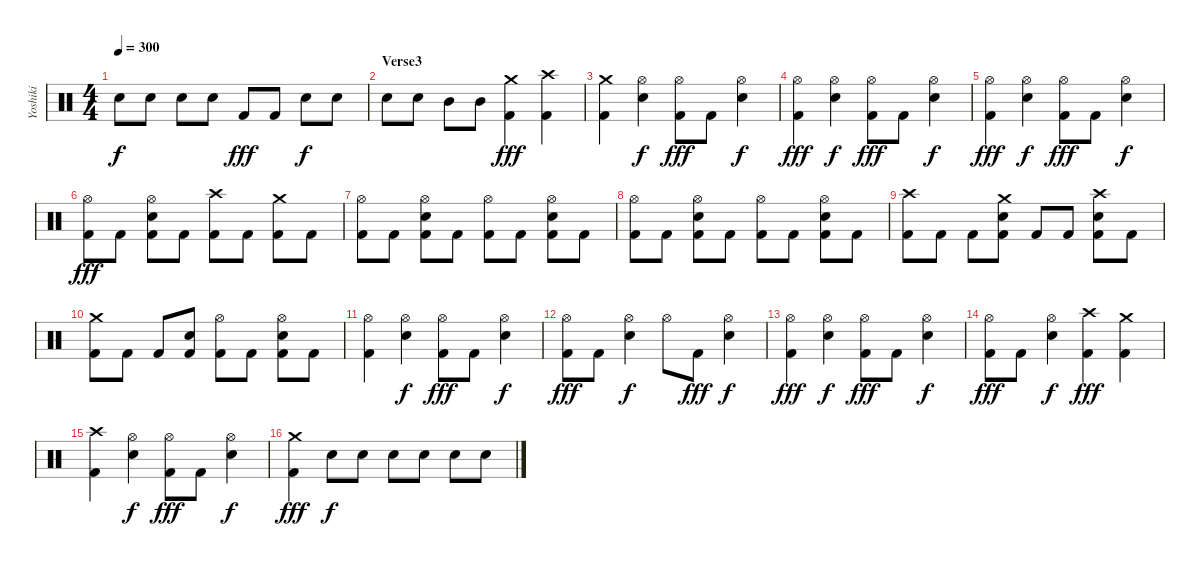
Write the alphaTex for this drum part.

\track ("Yoshiki" "Yoshiki") {instrument percussion}
\staff {score}
\articulation defaults
\ts (4 4)
\tempo 300
\clef neutral
\ks c "Snare (hit) 2".8{dy f} "Snare (hit) 2".8 "Snare (hit) 2".8 "Snare (hit) 2".8 "Kick (hit) 2".8{dy fff} "Kick (hit) 2".8 "Snare (hit) 2".8{dy f} "Snare (hit) 2".8
|
\section ("" "Verse3")
"Snare (hit) 2".8 "Snare (hit) 2".8 "Mid Tom (hit)".8 "Mid Tom (hit)".8 ("Crash medium (hit)" "Kick (hit) 2").4{dy fff} ("Crash high (hit)" "Kick (hit) 2").4 |
("Crash medium (hit)" "Kick (hit) 2").4 ("Hi-Hat (open)" "Snare (hit) 2").4{dy f} ("Hi-Hat (open)" "Kick (hit) 2").8{dy fff} "Kick (hit) 2".8 ("Hi-Hat (open)" "Snare (hit) 2").4{dy f} |
("Hi-Hat (open)" "Kick (hit) 2").4{dy fff} ("Hi-Hat (open)" "Snare (hit) 2").4{dy f} ("Hi-Hat (open)" "Kick (hit) 2").8{dy fff} "Kick (hit) 2".8 ("Hi-Hat (open)" "Snare (hit) 2").4{dy f} |
("Hi-Hat (open)" "Kick (hit) 2").4{dy fff} ("Hi-Hat (open)" "Snare (hit) 2").4{dy f} ("Hi-Hat (open)" "Kick (hit) 2").8{dy fff} "Kick (hit) 2".8 ("Hi-Hat (open)" "Snare (hit) 2").4{dy f} |
("Hi-Hat (open)" "Kick (hit) 2").8{dy fff} "Kick (hit) 2".8 ("Hi-Hat (open)" "Snare (hit) 2" "Kick (hit) 2").8 "Kick (hit) 2".8 ("Crash high (hit)" "Kick (hit) 2").8 "Kick (hit) 2".8 ("Crash medium (hit)" "Kick (hit) 2").8 "Kick (hit) 2".8 |
("Hi-Hat (open)" "Kick (hit) 2").8 "Kick (hit) 2".8 ("Hi-Hat (open)" "Snare (hit) 2" "Kick (hit) 2").8 "Kick (hit) 2".8 ("Hi-Hat (open)" "Kick (hit) 2").8 "Kick (hit) 2".8 ("Hi-Hat (open)" "Snare (hit) 2" "Kick (hit) 2").8 "Kick (hit) 2".8 |
("Hi-Hat (open)" "Kick (hit) 2").8 "Kick (hit) 2".8 ("Hi-Hat (open)" "Snare (hit) 2" "Kick (hit) 2").8 "Kick (hit) 2".8 ("Hi-Hat (open)" "Kick (hit) 2").8 "Kick (hit) 2".8 ("Hi-Hat (open)" "Snare (hit) 2" "Kick (hit) 2").8 "Kick (hit) 2".8 |
("Crash high (hit)" "Kick (hit) 2").8 "Kick (hit) 2".8 "Kick (hit) 2".8 ("Crash medium (hit)" "Snare (hit) 2" "Kick (hit) 2").8 "Kick (hit) 2".8 "Kick (hit) 2".8 ("Crash high (hit)" "Snare (hit) 2" "Kick (hit) 2").8 "Kick (hit) 2".8 |
("Crash medium (hit)" "Kick (hit) 2").8 "Kick (hit) 2".8 "Kick (hit) 2".8 ("Snare (hit) 2" "Kick (hit) 2").8 ("Hi-Hat (open)" "Kick (hit) 2").8 "Kick (hit) 2".8 ("Hi-Hat (open)" "Snare (hit) 2" "Kick (hit) 2").8 "Kick (hit) 2".8 |
("Hi-Hat (open)" "Kick (hit) 2").4 ("Hi-Hat (open)" "Snare (hit) 2").4{dy f} ("Hi-Hat (open)" "Kick (hit) 2").8{dy fff} "Kick (hit) 2".8 ("Hi-Hat (open)" "Snare (hit) 2").4{dy f} |
("Hi-Hat (open)" "Kick (hit) 2").8{dy fff} "Kick (hit) 2".8 ("Hi-Hat (open)" "Snare (hit) 2").4{dy f} "Hi-Hat (open)".8 "Kick (hit) 2".8{dy fff} ("Hi-Hat (open)" "Snare (hit) 2").4{dy f} |
("Hi-Hat (open)" "Kick (hit) 2").4{dy fff} ("Hi-Hat (open)" "Snare (hit) 2").4{dy f} ("Hi-Hat (open)" "Kick (hit) 2").8{dy fff} "Kick (hit) 2".8 ("Hi-Hat (open)" "Snare (hit) 2").4{dy f} |
("Hi-Hat (open)" "Kick (hit) 2").8{dy fff} "Kick (hit) 2".8 ("Hi-Hat (open)" "Snare (hit) 2").4{dy f} ("Crash high (hit)" "Kick (hit) 2").4{dy fff} ("Crash medium (hit)" "Kick (hit) 2").4 |
("Crash high (hit)" "Kick (hit) 2").4 ("Hi-Hat (open)" "Snare (hit) 2").4{dy f} ("Hi-Hat (open)" "Kick (hit) 2").8{dy fff} "Kick (hit) 2".8 ("Hi-Hat (open)" "Snare (hit) 2").4{dy f} |
("Crash medium (hit)" "Kick (hit) 2").4{dy fff} "Snare (hit) 2".8{dy f} "Snare (hit) 2".8 "Snare (hit) 2".8 "Snare (hit) 2".8 "Snare (hit) 2".8 "Snare (hit) 2".8
